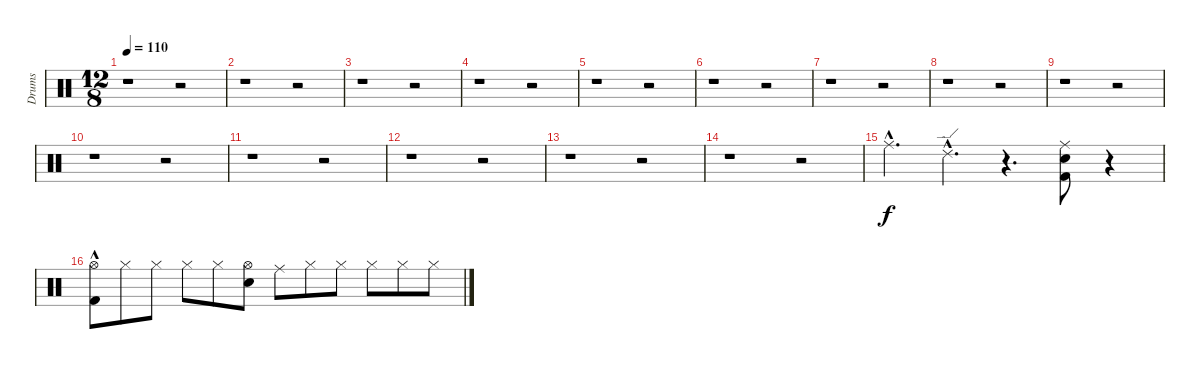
\track ("Drums" "Drums") {instrument percussion}
\staff {score}
\articulation defaults
\ts (12 8)
\tempo 110
\clef neutral
\ks c
r.1{dy f} r.2 |
r.1 r.2 |
r.1 r.2 |
r.1 r.2 |
r.1 r.2 |
r.1 r.2 |
r.1 r.2 |
r.1 r.2 |
r.1 r.2 |
r.1 r.2 |
r.1 r.2 |
r.1 r.2 |
r.1 r.2 |
r.1 r.2 |
"Ride (middle)"{hac}.4{d} "Ride (edge) 2"{hac}.4{d} r.4{d} ("Ride (middle)" "Snare (hit) 2" "Kick (hit) 2").8 r.4 |
("Hi-Hat (open)"{hac} "Kick (hit) 2"{hac}).8 "Hi-Hat (closed)".8 "Hi-Hat (closed)".8 "Hi-Hat (closed)".8 "Hi-Hat (closed)".8 ("Snare (hit) 2" "Hi-Hat (open)").8 "Ride (middle)".8 "Hi-Hat (closed)".8 "Hi-Hat (closed)".8 "Hi-Hat (closed)".8 "Hi-Hat (closed)".8 "Hi-Hat (closed)".8
